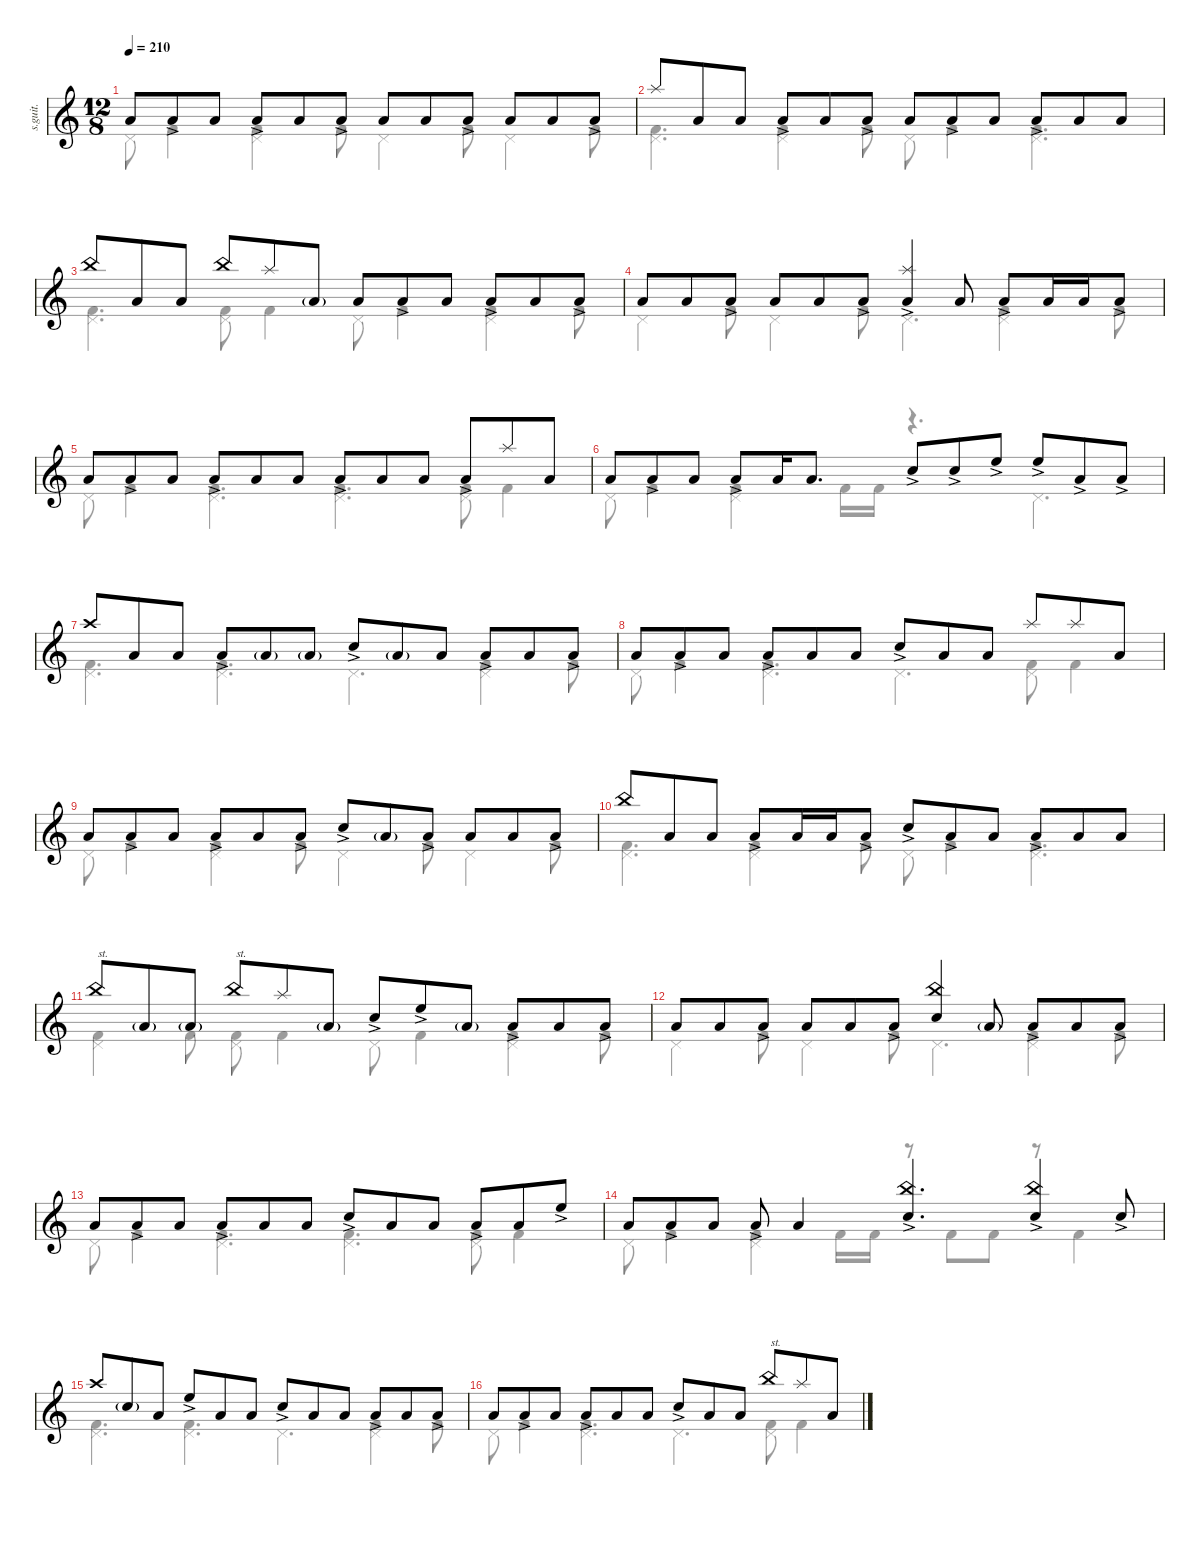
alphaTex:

\defaultSystemsLayout 4
\hideDynamics
\bracketExtendMode nobrackets
\track ("Percussion" "s.guit.") {instrument percussion}
\staff {score}
\articulation defaults
\voice
\ts (12 8)
\tempo 210
\clef g2
\ks c "Low Tom (hit)".8{lyrics (0 "") lyrics (1 "") lyrics (2 "") lyrics (3 "") lyrics (4 "") dy f} "Low Tom (hit)"{ac}.8{lyrics (0 "") lyrics (1 "") lyrics (2 "") lyrics (3 "") lyrics (4 "") dy mf} "Low Tom (hit)".8{lyrics (0 "") lyrics (1 "") lyrics (2 "") lyrics (3 "") lyrics (4 "") dy f} "Low Tom (hit)"{ac}.8{lyrics (0 "") lyrics (1 "") lyrics (2 "") lyrics (3 "") lyrics (4 "") dy mf} "Low Tom (hit)".8{lyrics (0 "") lyrics (1 "") lyrics (2 "") lyrics (3 "") lyrics (4 "") dy f} "Low Tom (hit)"{ac}.8{lyrics (0 "") lyrics (1 "") lyrics (2 "") lyrics (3 "") lyrics (4 "") dy mf} "Low Tom (hit)".8{lyrics (0 "") lyrics (1 "") lyrics (2 "") lyrics (3 "") lyrics (4 "") dy f} "Low Tom (hit)".8{lyrics (0 "") lyrics (1 "") lyrics (2 "") lyrics (3 "") lyrics (4 "")} "Low Tom (hit)"{ac}.8{lyrics (0 "") lyrics (1 "") lyrics (2 "") lyrics (3 "") lyrics (4 "") dy mf} "Low Tom (hit)".8{lyrics (0 "") lyrics (1 "") lyrics (2 "") lyrics (3 "") lyrics (4 "") dy f} "Low Tom (hit)".8{lyrics (0 "") lyrics (1 "") lyrics (2 "") lyrics (3 "") lyrics (4 "")} "Low Tom (hit)"{ac}.8{lyrics (0 "") lyrics (1 "") lyrics (2 "") lyrics (3 "") lyrics (4 "") dy mf}
|
"Splash (hit)".8{lyrics (0 "") lyrics (1 "") lyrics (2 "") lyrics (3 "") lyrics (4 "") dy f} "Low Tom (hit)".8{lyrics (0 "") lyrics (1 "") lyrics (2 "") lyrics (3 "") lyrics (4 "")} "Low Tom (hit)".8{lyrics (0 "") lyrics (1 "") lyrics (2 "") lyrics (3 "") lyrics (4 "")} "Low Tom (hit)"{ac}.8{lyrics (0 "") lyrics (1 "") lyrics (2 "") lyrics (3 "") lyrics (4 "") dy mf} "Low Tom (hit)".8{lyrics (0 "") lyrics (1 "") lyrics (2 "") lyrics (3 "") lyrics (4 "") dy f} "Low Tom (hit)"{ac}.8{lyrics (0 "") lyrics (1 "") lyrics (2 "") lyrics (3 "") lyrics (4 "") dy mf} "Low Tom (hit)".8{lyrics (0 "") lyrics (1 "") lyrics (2 "") lyrics (3 "") lyrics (4 "") dy f} "Low Tom (hit)"{ac}.8{lyrics (0 "") lyrics (1 "") lyrics (2 "") lyrics (3 "") lyrics (4 "") dy mf} "Low Tom (hit)".8{lyrics (0 "") lyrics (1 "") lyrics (2 "") lyrics (3 "") lyrics (4 "") dy f} "Low Tom (hit)"{ac}.8{lyrics (0 "") lyrics (1 "") lyrics (2 "") lyrics (3 "") lyrics (4 "") dy mf} "Low Tom (hit)".8{lyrics (0 "") lyrics (1 "") lyrics (2 "") lyrics (3 "") lyrics (4 "") dy f} "Low Tom (hit)".8{lyrics (0 "") lyrics (1 "") lyrics (2 "") lyrics (3 "") lyrics (4 "")} |
"China (hit)".8{lyrics (0 "") lyrics (1 "") lyrics (2 "") lyrics (3 "") lyrics (4 "")} "Low Tom (hit)".8{lyrics (0 "") lyrics (1 "") lyrics (2 "") lyrics (3 "") lyrics (4 "")} "Low Tom (hit)".8{lyrics (0 "") lyrics (1 "") lyrics (2 "") lyrics (3 "") lyrics (4 "")} "China (hit)".8{lyrics (0 "") lyrics (1 "") lyrics (2 "") lyrics (3 "") lyrics (4 "")} "Splash (hit)".8{lyrics (0 "") lyrics (1 "") lyrics (2 "") lyrics (3 "") lyrics (4 "")} "Low Tom (hit)"{g}.8{lyrics (0 "") lyrics (1 "") lyrics (2 "") lyrics (3 "") lyrics (4 "") dy ff} "Low Tom (hit)".8{lyrics (0 "") lyrics (1 "") lyrics (2 "") lyrics (3 "") lyrics (4 "") dy f} "Low Tom (hit)"{ac}.8{lyrics (0 "") lyrics (1 "") lyrics (2 "") lyrics (3 "") lyrics (4 "") dy mf} "Low Tom (hit)".8{lyrics (0 "") lyrics (1 "") lyrics (2 "") lyrics (3 "") lyrics (4 "") dy f} "Low Tom (hit)"{ac}.8{lyrics (0 "") lyrics (1 "") lyrics (2 "") lyrics (3 "") lyrics (4 "") dy mf} "Low Tom (hit)".8{lyrics (0 "") lyrics (1 "") lyrics (2 "") lyrics (3 "") lyrics (4 "") dy f} "Low Tom (hit)"{ac}.8{lyrics (0 "") lyrics (1 "") lyrics (2 "") lyrics (3 "") lyrics (4 "") dy mf} |
"Low Tom (hit)".8{lyrics (0 "") lyrics (1 "") lyrics (2 "") lyrics (3 "") lyrics (4 "") dy f} "Low Tom (hit)".8{lyrics (0 "") lyrics (1 "") lyrics (2 "") lyrics (3 "") lyrics (4 "")} "Low Tom (hit)"{ac}.8{lyrics (0 "") lyrics (1 "") lyrics (2 "") lyrics (3 "") lyrics (4 "") dy mf} "Low Tom (hit)".8{lyrics (0 "") lyrics (1 "") lyrics (2 "") lyrics (3 "") lyrics (4 "") dy f} "Low Tom (hit)".8{lyrics (0 "") lyrics (1 "") lyrics (2 "") lyrics (3 "") lyrics (4 "")} "Low Tom (hit)"{ac}.8{lyrics (0 "") lyrics (1 "") lyrics (2 "") lyrics (3 "") lyrics (4 "") dy mf} ("Splash (hit)" "Low Tom (hit)"{ac}).4{lyrics (0 "") lyrics (1 "") lyrics (2 "") lyrics (3 "") lyrics (4 "") dy f} "Low Tom (hit)".8{lyrics (0 "") lyrics (1 "") lyrics (2 "") lyrics (3 "") lyrics (4 "")} "Low Tom (hit)"{ac}.8{lyrics (0 "") lyrics (1 "") lyrics (2 "") lyrics (3 "") lyrics (4 "") dy mf} "Low Tom (hit)".16{lyrics (0 "") lyrics (1 "") lyrics (2 "") lyrics (3 "") lyrics (4 "") dy f} "Low Tom (hit)".16{lyrics (0 "") lyrics (1 "") lyrics (2 "") lyrics (3 "") lyrics (4 "")} "Low Tom (hit)"{ac}.8{lyrics (0 "") lyrics (1 "") lyrics (2 "") lyrics (3 "") lyrics (4 "") dy mf} |
"Low Tom (hit)".8{lyrics (0 "") lyrics (1 "") lyrics (2 "") lyrics (3 "") lyrics (4 "") dy f} "Low Tom (hit)"{ac}.8{lyrics (0 "") lyrics (1 "") lyrics (2 "") lyrics (3 "") lyrics (4 "") dy mf} "Low Tom (hit)".8{lyrics (0 "") lyrics (1 "") lyrics (2 "") lyrics (3 "") lyrics (4 "") dy f} "Low Tom (hit)"{ac}.8{lyrics (0 "") lyrics (1 "") lyrics (2 "") lyrics (3 "") lyrics (4 "") dy mf} "Low Tom (hit)".8{lyrics (0 "") lyrics (1 "") lyrics (2 "") lyrics (3 "") lyrics (4 "") dy f} "Low Tom (hit)".8{lyrics (0 "") lyrics (1 "") lyrics (2 "") lyrics (3 "") lyrics (4 "")} "Low Tom (hit)"{ac}.8{lyrics (0 "") lyrics (1 "") lyrics (2 "") lyrics (3 "") lyrics (4 "") dy mf} "Low Tom (hit)".8{lyrics (0 "") lyrics (1 "") lyrics (2 "") lyrics (3 "") lyrics (4 "") dy f} "Low Tom (hit)".8{lyrics (0 "") lyrics (1 "") lyrics (2 "") lyrics (3 "") lyrics (4 "")} "Low Tom (hit)"{ac}.8{lyrics (0 "") lyrics (1 "") lyrics (2 "") lyrics (3 "") lyrics (4 "") dy mf} "Splash (hit)".8{lyrics (0 "") lyrics (1 "") lyrics (2 "") lyrics (3 "") lyrics (4 "") dy f} "Low Tom (hit)".8{lyrics (0 "") lyrics (1 "") lyrics (2 "") lyrics (3 "") lyrics (4 "")} |
"Low Tom (hit)".8{lyrics (0 "") lyrics (1 "") lyrics (2 "") lyrics (3 "") lyrics (4 "")} "Low Tom (hit)"{ac}.8{lyrics (0 "") lyrics (1 "") lyrics (2 "") lyrics (3 "") lyrics (4 "") dy mf} "Low Tom (hit)".8{lyrics (0 "") lyrics (1 "") lyrics (2 "") lyrics (3 "") lyrics (4 "") dy f} "Low Tom (hit)"{ac}.8{lyrics (0 "") lyrics (1 "") lyrics (2 "") lyrics (3 "") lyrics (4 "") dy mf} "Low Tom (hit)".16{lyrics (0 "") lyrics (1 "") lyrics (2 "") lyrics (3 "") lyrics (4 "") dy f} "Low Tom (hit)".8{d lyrics (0 "") lyrics (1 "") lyrics (2 "") lyrics (3 "") lyrics (4 "")} "Snare (hit) 2"{ac}.8{lyrics (0 "") lyrics (1 "") lyrics (2 "") lyrics (3 "") lyrics (4 "") dy mf} "Snare (hit) 2"{ac}.8{lyrics (0 "") lyrics (1 "") lyrics (2 "") lyrics (3 "") lyrics (4 "")} "High Floor Tom (hit)"{ac}.8{lyrics (0 "") lyrics (1 "") lyrics (2 "") lyrics (3 "") lyrics (4 "")} "High Floor Tom (hit)"{ac}.8{lyrics (0 "") lyrics (1 "") lyrics (2 "") lyrics (3 "") lyrics (4 "")} "Low Tom (hit)"{ac}.8{lyrics (0 "") lyrics (1 "") lyrics (2 "") lyrics (3 "") lyrics (4 "")} "Low Tom (hit)"{ac}.8{lyrics (0 "") lyrics (1 "") lyrics (2 "") lyrics (3 "") lyrics (4 "")} |
"Crash high (hit)".8{lyrics (0 "") lyrics (1 "") lyrics (2 "") lyrics (3 "") lyrics (4 "") dy f} "Low Tom (hit)".8{lyrics (0 "") lyrics (1 "") lyrics (2 "") lyrics (3 "") lyrics (4 "")} "Low Tom (hit)".8{lyrics (0 "") lyrics (1 "") lyrics (2 "") lyrics (3 "") lyrics (4 "")} "Low Tom (hit)"{ac}.8{lyrics (0 "") lyrics (1 "") lyrics (2 "") lyrics (3 "") lyrics (4 "") dy mf} "Low Tom (hit)"{g}.8{lyrics (0 "") lyrics (1 "") lyrics (2 "") lyrics (3 "") lyrics (4 "") dy ff} "Low Tom (hit)"{g}.8{lyrics (0 "") lyrics (1 "") lyrics (2 "") lyrics (3 "") lyrics (4 "")} "Snare (hit) 2"{ac}.8{lyrics (0 "") lyrics (1 "") lyrics (2 "") lyrics (3 "") lyrics (4 "") dy mf} "Low Tom (hit)"{g}.8{lyrics (0 "") lyrics (1 "") lyrics (2 "") lyrics (3 "") lyrics (4 "") dy ff} "Low Tom (hit)".8{lyrics (0 "") lyrics (1 "") lyrics (2 "") lyrics (3 "") lyrics (4 "") dy f} "Low Tom (hit)"{ac}.8{lyrics (0 "") lyrics (1 "") lyrics (2 "") lyrics (3 "") lyrics (4 "") dy mf} "Low Tom (hit)".8{lyrics (0 "") lyrics (1 "") lyrics (2 "") lyrics (3 "") lyrics (4 "") dy f} "Low Tom (hit)"{ac}.8{lyrics (0 "") lyrics (1 "") lyrics (2 "") lyrics (3 "") lyrics (4 "") dy mf} |
"Low Tom (hit)".8{lyrics (0 "") lyrics (1 "") lyrics (2 "") lyrics (3 "") lyrics (4 "") dy f} "Low Tom (hit)"{ac}.8{lyrics (0 "") lyrics (1 "") lyrics (2 "") lyrics (3 "") lyrics (4 "") dy mf} "Low Tom (hit)".8{lyrics (0 "") lyrics (1 "") lyrics (2 "") lyrics (3 "") lyrics (4 "") dy f} "Low Tom (hit)"{ac}.8{lyrics (0 "") lyrics (1 "") lyrics (2 "") lyrics (3 "") lyrics (4 "") dy mf} "Low Tom (hit)".8{lyrics (0 "") lyrics (1 "") lyrics (2 "") lyrics (3 "") lyrics (4 "") dy f} "Low Tom (hit)".8{lyrics (0 "") lyrics (1 "") lyrics (2 "") lyrics (3 "") lyrics (4 "")} "Snare (hit) 2"{ac}.8{lyrics (0 "") lyrics (1 "") lyrics (2 "") lyrics (3 "") lyrics (4 "") dy mf} "Low Tom (hit)".8{lyrics (0 "") lyrics (1 "") lyrics (2 "") lyrics (3 "") lyrics (4 "") dy f} "Low Tom (hit)".8{lyrics (0 "") lyrics (1 "") lyrics (2 "") lyrics (3 "") lyrics (4 "")} "Splash (hit)".8{lyrics (0 "") lyrics (1 "") lyrics (2 "") lyrics (3 "") lyrics (4 "")} "Splash (hit)".8{lyrics (0 "") lyrics (1 "") lyrics (2 "") lyrics (3 "") lyrics (4 "")} "Low Tom (hit)".8{lyrics (0 "") lyrics (1 "") lyrics (2 "") lyrics (3 "") lyrics (4 "")} |
"Low Tom (hit)".8{lyrics (0 "") lyrics (1 "") lyrics (2 "") lyrics (3 "") lyrics (4 "")} "Low Tom (hit)"{ac}.8{lyrics (0 "") lyrics (1 "") lyrics (2 "") lyrics (3 "") lyrics (4 "") dy mf} "Low Tom (hit)".8{lyrics (0 "") lyrics (1 "") lyrics (2 "") lyrics (3 "") lyrics (4 "") dy f} "Low Tom (hit)"{ac}.8{lyrics (0 "") lyrics (1 "") lyrics (2 "") lyrics (3 "") lyrics (4 "") dy mf} "Low Tom (hit)".8{lyrics (0 "") lyrics (1 "") lyrics (2 "") lyrics (3 "") lyrics (4 "") dy f} "Low Tom (hit)"{ac}.8{lyrics (0 "") lyrics (1 "") lyrics (2 "") lyrics (3 "") lyrics (4 "") dy mf} "Snare (hit) 2"{ac}.8{lyrics (0 "") lyrics (1 "") lyrics (2 "") lyrics (3 "") lyrics (4 "")} "Low Tom (hit)"{g}.8{lyrics (0 "") lyrics (1 "") lyrics (2 "") lyrics (3 "") lyrics (4 "") dy ff} "Low Tom (hit)"{ac}.8{lyrics (0 "") lyrics (1 "") lyrics (2 "") lyrics (3 "") lyrics (4 "") dy mf} "Low Tom (hit)".8{lyrics (0 "") lyrics (1 "") lyrics (2 "") lyrics (3 "") lyrics (4 "") dy f} "Low Tom (hit)".8{lyrics (0 "") lyrics (1 "") lyrics (2 "") lyrics (3 "") lyrics (4 "")} "Low Tom (hit)"{ac}.8{lyrics (0 "") lyrics (1 "") lyrics (2 "") lyrics (3 "") lyrics (4 "") dy mf} |
"China (hit)".8{lyrics (0 "") lyrics (1 "") lyrics (2 "") lyrics (3 "") lyrics (4 "") dy f} "Low Tom (hit)".8{lyrics (0 "") lyrics (1 "") lyrics (2 "") lyrics (3 "") lyrics (4 "")} "Low Tom (hit)".8{lyrics (0 "") lyrics (1 "") lyrics (2 "") lyrics (3 "") lyrics (4 "")} "Low Tom (hit)"{ac}.8{lyrics (0 "") lyrics (1 "") lyrics (2 "") lyrics (3 "") lyrics (4 "") dy mf} "Low Tom (hit)".16{lyrics (0 "") lyrics (1 "") lyrics (2 "") lyrics (3 "") lyrics (4 "") dy f} "Low Tom (hit)".16{lyrics (0 "") lyrics (1 "") lyrics (2 "") lyrics (3 "") lyrics (4 "")} "Low Tom (hit)"{ac}.8{lyrics (0 "") lyrics (1 "") lyrics (2 "") lyrics (3 "") lyrics (4 "") dy mf} "Snare (hit) 2"{ac}.8{lyrics (0 "") lyrics (1 "") lyrics (2 "") lyrics (3 "") lyrics (4 "")} "Low Tom (hit)"{ac}.8{lyrics (0 "") lyrics (1 "") lyrics (2 "") lyrics (3 "") lyrics (4 "")} "Low Tom (hit)".8{lyrics (0 "") lyrics (1 "") lyrics (2 "") lyrics (3 "") lyrics (4 "") dy f} "Low Tom (hit)"{ac}.8{lyrics (0 "") lyrics (1 "") lyrics (2 "") lyrics (3 "") lyrics (4 "") dy mf} "Low Tom (hit)".8{lyrics (0 "") lyrics (1 "") lyrics (2 "") lyrics (3 "") lyrics (4 "") dy f} "Low Tom (hit)".8{lyrics (0 "") lyrics (1 "") lyrics (2 "") lyrics (3 "") lyrics (4 "")} |
"China (hit)".8{txt "st." lyrics (0 "") lyrics (1 "") lyrics (2 "") lyrics (3 "") lyrics (4 "")} "Low Tom (hit)"{g}.8{lyrics (0 "") lyrics (1 "") lyrics (2 "") lyrics (3 "") lyrics (4 "") dy ff} "Low Tom (hit)"{g}.8{lyrics (0 "") lyrics (1 "") lyrics (2 "") lyrics (3 "") lyrics (4 "")} "China (hit)".8{txt "st." lyrics (0 "") lyrics (1 "") lyrics (2 "") lyrics (3 "") lyrics (4 "") dy f} "Splash (hit)".8{lyrics (0 "") lyrics (1 "") lyrics (2 "") lyrics (3 "") lyrics (4 "")} "Low Tom (hit)"{g}.8{lyrics (0 "") lyrics (1 "") lyrics (2 "") lyrics (3 "") lyrics (4 "") dy ff} "Snare (hit) 2"{ac}.8{lyrics (0 "") lyrics (1 "") lyrics (2 "") lyrics (3 "") lyrics (4 "") dy mf} "High Floor Tom (hit)"{ac}.8{lyrics (0 "") lyrics (1 "") lyrics (2 "") lyrics (3 "") lyrics (4 "")} "Low Tom (hit)"{g}.8{lyrics (0 "") lyrics (1 "") lyrics (2 "") lyrics (3 "") lyrics (4 "") dy ff} "Low Tom (hit)"{ac}.8{lyrics (0 "") lyrics (1 "") lyrics (2 "") lyrics (3 "") lyrics (4 "") dy mf} "Low Tom (hit)".8{lyrics (0 "") lyrics (1 "") lyrics (2 "") lyrics (3 "") lyrics (4 "") dy f} "Low Tom (hit)"{ac}.8{lyrics (0 "") lyrics (1 "") lyrics (2 "") lyrics (3 "") lyrics (4 "") dy mf} |
"Low Tom (hit)".8{lyrics (0 "") lyrics (1 "") lyrics (2 "") lyrics (3 "") lyrics (4 "") dy f} "Low Tom (hit)".8{lyrics (0 "") lyrics (1 "") lyrics (2 "") lyrics (3 "") lyrics (4 "")} "Low Tom (hit)"{ac}.8{lyrics (0 "") lyrics (1 "") lyrics (2 "") lyrics (3 "") lyrics (4 "") dy mf} "Low Tom (hit)".8{lyrics (0 "") lyrics (1 "") lyrics (2 "") lyrics (3 "") lyrics (4 "") dy f} "Low Tom (hit)".8{lyrics (0 "") lyrics (1 "") lyrics (2 "") lyrics (3 "") lyrics (4 "")} "Low Tom (hit)"{ac}.8{lyrics (0 "") lyrics (1 "") lyrics (2 "") lyrics (3 "") lyrics (4 "") dy mf} ("China (hit)" "Snare (hit) 2").4{lyrics (0 "") lyrics (1 "") lyrics (2 "") lyrics (3 "") lyrics (4 "") dy f} "Low Tom (hit)"{g}.8{lyrics (0 "") lyrics (1 "") lyrics (2 "") lyrics (3 "") lyrics (4 "") dy ff} "Low Tom (hit)"{ac}.8{lyrics (0 "") lyrics (1 "") lyrics (2 "") lyrics (3 "") lyrics (4 "") dy mf} "Low Tom (hit)".8{lyrics (0 "") lyrics (1 "") lyrics (2 "") lyrics (3 "") lyrics (4 "") dy f} "Low Tom (hit)"{ac}.8{lyrics (0 "") lyrics (1 "") lyrics (2 "") lyrics (3 "") lyrics (4 "") dy mf} |
"Low Tom (hit)".8{lyrics (0 "") lyrics (1 "") lyrics (2 "") lyrics (3 "") lyrics (4 "") dy f} "Low Tom (hit)"{ac}.8{lyrics (0 "") lyrics (1 "") lyrics (2 "") lyrics (3 "") lyrics (4 "") dy mf} "Low Tom (hit)".8{lyrics (0 "") lyrics (1 "") lyrics (2 "") lyrics (3 "") lyrics (4 "") dy f} "Low Tom (hit)"{ac}.8{lyrics (0 "") lyrics (1 "") lyrics (2 "") lyrics (3 "") lyrics (4 "") dy mf} "Low Tom (hit)".8{lyrics (0 "") lyrics (1 "") lyrics (2 "") lyrics (3 "") lyrics (4 "") dy f} "Low Tom (hit)".8{lyrics (0 "") lyrics (1 "") lyrics (2 "") lyrics (3 "") lyrics (4 "")} "Snare (hit) 2"{ac}.8{lyrics (0 "") lyrics (1 "") lyrics (2 "") lyrics (3 "") lyrics (4 "") dy mf} "Low Tom (hit)".8{lyrics (0 "") lyrics (1 "") lyrics (2 "") lyrics (3 "") lyrics (4 "") dy f} "Low Tom (hit)".8{lyrics (0 "") lyrics (1 "") lyrics (2 "") lyrics (3 "") lyrics (4 "")} "Low Tom (hit)"{ac}.8{lyrics (0 "") lyrics (1 "") lyrics (2 "") lyrics (3 "") lyrics (4 "") dy mf} "Low Tom (hit)".8{lyrics (0 "") lyrics (1 "") lyrics (2 "") lyrics (3 "") lyrics (4 "") dy f} "High Floor Tom (hit)"{ac}.8{lyrics (0 "") lyrics (1 "") lyrics (2 "") lyrics (3 "") lyrics (4 "") dy mf} |
"Low Tom (hit)".8{lyrics (0 "") lyrics (1 "") lyrics (2 "") lyrics (3 "") lyrics (4 "") dy f} "Low Tom (hit)"{ac}.8{lyrics (0 "") lyrics (1 "") lyrics (2 "") lyrics (3 "") lyrics (4 "") dy mf} "Low Tom (hit)".8{lyrics (0 "") lyrics (1 "") lyrics (2 "") lyrics (3 "") lyrics (4 "") dy f} "Low Tom (hit)"{ac}.8{lyrics (0 "") lyrics (1 "") lyrics (2 "") lyrics (3 "") lyrics (4 "") dy mf} "Low Tom (hit)".4{lyrics (0 "") lyrics (1 "") lyrics (2 "") lyrics (3 "") lyrics (4 "") dy f} ("Snare (hit) 2"{ac} "China (hit)").4{d lyrics (0 "") lyrics (1 "") lyrics (2 "") lyrics (3 "") lyrics (4 "")} ("Snare (hit) 2"{ac} "China (hit)").4{lyrics (0 "") lyrics (1 "") lyrics (2 "") lyrics (3 "") lyrics (4 "")} "Snare (hit) 2"{ac}.8{lyrics (0 "") lyrics (1 "") lyrics (2 "") lyrics (3 "") lyrics (4 "") dy mf} |
"Crash high (hit)".8{lyrics (0 "") lyrics (1 "") lyrics (2 "") lyrics (3 "") lyrics (4 "") dy f} "Snare (hit) 2"{g}.8{lyrics (0 "") lyrics (1 "") lyrics (2 "") lyrics (3 "") lyrics (4 "") dy ff} "Low Tom (hit)".8{lyrics (0 "") lyrics (1 "") lyrics (2 "") lyrics (3 "") lyrics (4 "") dy f} "High Floor Tom (hit)"{ac}.8{lyrics (0 "") lyrics (1 "") lyrics (2 "") lyrics (3 "") lyrics (4 "") dy mf} "Low Tom (hit)".8{lyrics (0 "") lyrics (1 "") lyrics (2 "") lyrics (3 "") lyrics (4 "") dy f} "Low Tom (hit)".8{lyrics (0 "") lyrics (1 "") lyrics (2 "") lyrics (3 "") lyrics (4 "")} "Snare (hit) 2"{ac}.8{lyrics (0 "") lyrics (1 "") lyrics (2 "") lyrics (3 "") lyrics (4 "") dy mf} "Low Tom (hit)".8{lyrics (0 "") lyrics (1 "") lyrics (2 "") lyrics (3 "") lyrics (4 "") dy f} "Low Tom (hit)".8{lyrics (0 "") lyrics (1 "") lyrics (2 "") lyrics (3 "") lyrics (4 "")} "Low Tom (hit)"{ac}.8{lyrics (0 "") lyrics (1 "") lyrics (2 "") lyrics (3 "") lyrics (4 "") dy mf} "Low Tom (hit)".8{lyrics (0 "") lyrics (1 "") lyrics (2 "") lyrics (3 "") lyrics (4 "") dy f} "Low Tom (hit)"{ac}.8{lyrics (0 "") lyrics (1 "") lyrics (2 "") lyrics (3 "") lyrics (4 "") dy mf} |
"Low Tom (hit)".8{lyrics (0 "") lyrics (1 "") lyrics (2 "") lyrics (3 "") lyrics (4 "") dy f} "Low Tom (hit)"{ac}.8{lyrics (0 "") lyrics (1 "") lyrics (2 "") lyrics (3 "") lyrics (4 "") dy mf} "Low Tom (hit)".8{lyrics (0 "") lyrics (1 "") lyrics (2 "") lyrics (3 "") lyrics (4 "") dy f} "Low Tom (hit)"{ac}.8{lyrics (0 "") lyrics (1 "") lyrics (2 "") lyrics (3 "") lyrics (4 "") dy mf} "Low Tom (hit)".8{lyrics (0 "") lyrics (1 "") lyrics (2 "") lyrics (3 "") lyrics (4 "") dy f} "Low Tom (hit)".8{lyrics (0 "") lyrics (1 "") lyrics (2 "") lyrics (3 "") lyrics (4 "")} "Snare (hit) 2"{ac}.8{lyrics (0 "") lyrics (1 "") lyrics (2 "") lyrics (3 "") lyrics (4 "") dy mf} "Low Tom (hit)".8{lyrics (0 "") lyrics (1 "") lyrics (2 "") lyrics (3 "") lyrics (4 "") dy f} "Low Tom (hit)".8{lyrics (0 "") lyrics (1 "") lyrics (2 "") lyrics (3 "") lyrics (4 "")} "China (hit)".8{txt "st." lyrics (0 "") lyrics (1 "") lyrics (2 "") lyrics (3 "") lyrics (4 "")} "Splash (hit)".8{lyrics (0 "") lyrics (1 "") lyrics (2 "") lyrics (3 "") lyrics (4 "")} "Low Tom (hit)".8{lyrics (0 "") lyrics (1 "") lyrics (2 "") lyrics (3 "") lyrics (4 "")}
\voice
\clef g2
\ottava regular
\simile none
\ks c "Pedal Hi-Hat (hit)".8{lyrics (0 "") lyrics (1 "") lyrics (2 "") lyrics (3 "") lyrics (4 "") dy f} "Kick (hit) 2".4{lyrics (0 "") lyrics (1 "") lyrics (2 "") lyrics (3 "") lyrics (4 "")}
("Kick (hit) 2" "Pedal Hi-Hat (hit)").4{lyrics (0 "") lyrics (1 "") lyrics (2 "") lyrics (3 "") lyrics (4 "")} "Kick (hit) 2".8{lyrics (0 "") lyrics (1 "") lyrics (2 "") lyrics (3 "") lyrics (4 "")} "Pedal Hi-Hat (hit)".4{lyrics (0 "") lyrics (1 "") lyrics (2 "") lyrics (3 "") lyrics (4 "")} "Kick (hit) 2".8{lyrics (0 "") lyrics (1 "") lyrics (2 "") lyrics (3 "") lyrics (4 "")} "Pedal Hi-Hat (hit)".4{lyrics (0 "") lyrics (1 "") lyrics (2 "") lyrics (3 "") lyrics (4 "")} "Kick (hit) 2".8{lyrics (0 "") lyrics (1 "") lyrics (2 "") lyrics (3 "") lyrics (4 "")} |
("Kick (hit) 2" "Pedal Hi-Hat (hit)").4{d lyrics (0 "") lyrics (1 "") lyrics (2 "") lyrics (3 "") lyrics (4 "")} ("Kick (hit) 2" "Pedal Hi-Hat (hit)").4{lyrics (0 "") lyrics (1 "") lyrics (2 "") lyrics (3 "") lyrics (4 "")} "Kick (hit) 2".8{lyrics (0 "") lyrics (1 "") lyrics (2 "") lyrics (3 "") lyrics (4 "")} "Pedal Hi-Hat (hit)".8{lyrics (0 "") lyrics (1 "") lyrics (2 "") lyrics (3 "") lyrics (4 "")} "Kick (hit) 2".4{lyrics (0 "") lyrics (1 "") lyrics (2 "") lyrics (3 "") lyrics (4 "")} ("Kick (hit) 2" "Pedal Hi-Hat (hit)").4{d lyrics (0 "") lyrics (1 "") lyrics (2 "") lyrics (3 "") lyrics (4 "")} |
("Kick (hit) 2" "Pedal Hi-Hat (hit)").4{d lyrics (0 "") lyrics (1 "") lyrics (2 "") lyrics (3 "") lyrics (4 "")} ("Kick (hit) 2" "Pedal Hi-Hat (hit)").8{lyrics (0 "") lyrics (1 "") lyrics (2 "") lyrics (3 "") lyrics (4 "")} "Kick (hit) 2".4{lyrics (0 "") lyrics (1 "") lyrics (2 "") lyrics (3 "") lyrics (4 "")} "Pedal Hi-Hat (hit)".8{lyrics (0 "") lyrics (1 "") lyrics (2 "") lyrics (3 "") lyrics (4 "")} "Kick (hit) 2".4{lyrics (0 "") lyrics (1 "") lyrics (2 "") lyrics (3 "") lyrics (4 "")} ("Kick (hit) 2" "Pedal Hi-Hat (hit)").4{lyrics (0 "") lyrics (1 "") lyrics (2 "") lyrics (3 "") lyrics (4 "")} "Kick (hit) 2".8{lyrics (0 "") lyrics (1 "") lyrics (2 "") lyrics (3 "") lyrics (4 "")} |
"Pedal Hi-Hat (hit)".4{lyrics (0 "") lyrics (1 "") lyrics (2 "") lyrics (3 "") lyrics (4 "")} "Kick (hit) 2".8{lyrics (0 "") lyrics (1 "") lyrics (2 "") lyrics (3 "") lyrics (4 "")} "Pedal Hi-Hat (hit)".4{lyrics (0 "") lyrics (1 "") lyrics (2 "") lyrics (3 "") lyrics (4 "")} "Kick (hit) 2".8{lyrics (0 "") lyrics (1 "") lyrics (2 "") lyrics (3 "") lyrics (4 "")} "Pedal Hi-Hat (hit)".4{d lyrics (0 "") lyrics (1 "") lyrics (2 "") lyrics (3 "") lyrics (4 "")} ("Kick (hit) 2" "Pedal Hi-Hat (hit)").4{lyrics (0 "") lyrics (1 "") lyrics (2 "") lyrics (3 "") lyrics (4 "")} "Kick (hit) 2".8{lyrics (0 "") lyrics (1 "") lyrics (2 "") lyrics (3 "") lyrics (4 "")} |
"Pedal Hi-Hat (hit)".8{lyrics (0 "") lyrics (1 "") lyrics (2 "") lyrics (3 "") lyrics (4 "")} "Kick (hit) 2".4{lyrics (0 "") lyrics (1 "") lyrics (2 "") lyrics (3 "") lyrics (4 "")} ("Kick (hit) 2" "Pedal Hi-Hat (hit)").4{d lyrics (0 "") lyrics (1 "") lyrics (2 "") lyrics (3 "") lyrics (4 "")} ("Pedal Hi-Hat (hit)" "Kick (hit) 2").4{d lyrics (0 "") lyrics (1 "") lyrics (2 "") lyrics (3 "") lyrics (4 "")} ("Pedal Hi-Hat (hit)" "Kick (hit) 2").8{lyrics (0 "") lyrics (1 "") lyrics (2 "") lyrics (3 "") lyrics (4 "")} "Kick (hit) 2".4{lyrics (0 "") lyrics (1 "") lyrics (2 "") lyrics (3 "") lyrics (4 "")} |
"Pedal Hi-Hat (hit)".8{lyrics (0 "") lyrics (1 "") lyrics (2 "") lyrics (3 "") lyrics (4 "")} "Kick (hit) 2".4{lyrics (0 "") lyrics (1 "") lyrics (2 "") lyrics (3 "") lyrics (4 "")} ("Kick (hit) 2" "Pedal Hi-Hat (hit)").4{lyrics (0 "") lyrics (1 "") lyrics (2 "") lyrics (3 "") lyrics (4 "")} "Kick (hit) 2".16{lyrics (0 "") lyrics (1 "") lyrics (2 "") lyrics (3 "") lyrics (4 "")} "Kick (hit) 2".16{lyrics (0 "") lyrics (1 "") lyrics (2 "") lyrics (3 "") lyrics (4 "")} r.4{d} "Pedal Hi-Hat (hit)".4{d lyrics (0 "") lyrics (1 "") lyrics (2 "") lyrics (3 "") lyrics (4 "")} |
("Kick (hit) 2" "Pedal Hi-Hat (hit)").4{d lyrics (0 "") lyrics (1 "") lyrics (2 "") lyrics (3 "") lyrics (4 "")} ("Kick (hit) 2" "Pedal Hi-Hat (hit)").4{d lyrics (0 "") lyrics (1 "") lyrics (2 "") lyrics (3 "") lyrics (4 "")} "Pedal Hi-Hat (hit)".4{d lyrics (0 "") lyrics (1 "") lyrics (2 "") lyrics (3 "") lyrics (4 "")} ("Kick (hit) 2" "Pedal Hi-Hat (hit)").4{lyrics (0 "") lyrics (1 "") lyrics (2 "") lyrics (3 "") lyrics (4 "")} "Kick (hit) 2".8{lyrics (0 "") lyrics (1 "") lyrics (2 "") lyrics (3 "") lyrics (4 "")} |
"Pedal Hi-Hat (hit)".8{lyrics (0 "") lyrics (1 "") lyrics (2 "") lyrics (3 "") lyrics (4 "")} "Kick (hit) 2".4{lyrics (0 "") lyrics (1 "") lyrics (2 "") lyrics (3 "") lyrics (4 "")} ("Kick (hit) 2" "Pedal Hi-Hat (hit)").4{d lyrics (0 "") lyrics (1 "") lyrics (2 "") lyrics (3 "") lyrics (4 "")} "Pedal Hi-Hat (hit)".4{d lyrics (0 "") lyrics (1 "") lyrics (2 "") lyrics (3 "") lyrics (4 "")} ("Kick (hit) 2" "Pedal Hi-Hat (hit)").8{lyrics (0 "") lyrics (1 "") lyrics (2 "") lyrics (3 "") lyrics (4 "")} "Kick (hit) 2".4{lyrics (0 "") lyrics (1 "") lyrics (2 "") lyrics (3 "") lyrics (4 "")} |
"Pedal Hi-Hat (hit)".8{lyrics (0 "") lyrics (1 "") lyrics (2 "") lyrics (3 "") lyrics (4 "")} "Kick (hit) 2".4{lyrics (0 "") lyrics (1 "") lyrics (2 "") lyrics (3 "") lyrics (4 "")} ("Kick (hit) 2" "Pedal Hi-Hat (hit)").4{lyrics (0 "") lyrics (1 "") lyrics (2 "") lyrics (3 "") lyrics (4 "")} "Kick (hit) 2".8{lyrics (0 "") lyrics (1 "") lyrics (2 "") lyrics (3 "") lyrics (4 "")} "Pedal Hi-Hat (hit)".4{lyrics (0 "") lyrics (1 "") lyrics (2 "") lyrics (3 "") lyrics (4 "")} "Kick (hit) 2".8{lyrics (0 "") lyrics (1 "") lyrics (2 "") lyrics (3 "") lyrics (4 "")} "Pedal Hi-Hat (hit)".4{lyrics (0 "") lyrics (1 "") lyrics (2 "") lyrics (3 "") lyrics (4 "")} "Kick (hit) 2".8{lyrics (0 "") lyrics (1 "") lyrics (2 "") lyrics (3 "") lyrics (4 "")} |
("Kick (hit) 2" "Pedal Hi-Hat (hit)").4{d lyrics (0 "") lyrics (1 "") lyrics (2 "") lyrics (3 "") lyrics (4 "")} ("Kick (hit) 2" "Pedal Hi-Hat (hit)").4{lyrics (0 "") lyrics (1 "") lyrics (2 "") lyrics (3 "") lyrics (4 "")} "Kick (hit) 2".8{lyrics (0 "") lyrics (1 "") lyrics (2 "") lyrics (3 "") lyrics (4 "")} "Pedal Hi-Hat (hit)".8{lyrics (0 "") lyrics (1 "") lyrics (2 "") lyrics (3 "") lyrics (4 "")} "Kick (hit) 2".4{lyrics (0 "") lyrics (1 "") lyrics (2 "") lyrics (3 "") lyrics (4 "")} ("Kick (hit) 2" "Pedal Hi-Hat (hit)").4{d lyrics (0 "") lyrics (1 "") lyrics (2 "") lyrics (3 "") lyrics (4 "")} |
("Kick (hit) 2" "Pedal Hi-Hat (hit)").4{lyrics (0 "") lyrics (1 "") lyrics (2 "") lyrics (3 "") lyrics (4 "")} "Kick (hit) 2".8{lyrics (0 "") lyrics (1 "") lyrics (2 "") lyrics (3 "") lyrics (4 "")} ("Kick (hit) 2" "Pedal Hi-Hat (hit)").8{lyrics (0 "") lyrics (1 "") lyrics (2 "") lyrics (3 "") lyrics (4 "")} "Kick (hit) 2".4{lyrics (0 "") lyrics (1 "") lyrics (2 "") lyrics (3 "") lyrics (4 "")} "Pedal Hi-Hat (hit)".8{lyrics (0 "") lyrics (1 "") lyrics (2 "") lyrics (3 "") lyrics (4 "")} "Kick (hit) 2".4{lyrics (0 "") lyrics (1 "") lyrics (2 "") lyrics (3 "") lyrics (4 "")} ("Kick (hit) 2" "Pedal Hi-Hat (hit)").4{lyrics (0 "") lyrics (1 "") lyrics (2 "") lyrics (3 "") lyrics (4 "")} "Kick (hit) 2".8{lyrics (0 "") lyrics (1 "") lyrics (2 "") lyrics (3 "") lyrics (4 "")} |
"Pedal Hi-Hat (hit)".4{lyrics (0 "") lyrics (1 "") lyrics (2 "") lyrics (3 "") lyrics (4 "")} "Kick (hit) 2".8{lyrics (0 "") lyrics (1 "") lyrics (2 "") lyrics (3 "") lyrics (4 "")} "Pedal Hi-Hat (hit)".4{lyrics (0 "") lyrics (1 "") lyrics (2 "") lyrics (3 "") lyrics (4 "")} "Kick (hit) 2".8{lyrics (0 "") lyrics (1 "") lyrics (2 "") lyrics (3 "") lyrics (4 "")} "Pedal Hi-Hat (hit)".4{d lyrics (0 "") lyrics (1 "") lyrics (2 "") lyrics (3 "") lyrics (4 "")} ("Kick (hit) 2" "Pedal Hi-Hat (hit)").4{lyrics (0 "") lyrics (1 "") lyrics (2 "") lyrics (3 "") lyrics (4 "")} "Kick (hit) 2".8{lyrics (0 "") lyrics (1 "") lyrics (2 "") lyrics (3 "") lyrics (4 "")} |
"Pedal Hi-Hat (hit)".8{lyrics (0 "") lyrics (1 "") lyrics (2 "") lyrics (3 "") lyrics (4 "")} "Kick (hit) 2".4{lyrics (0 "") lyrics (1 "") lyrics (2 "") lyrics (3 "") lyrics (4 "")} ("Kick (hit) 2" "Pedal Hi-Hat (hit)").4{d lyrics (0 "") lyrics (1 "") lyrics (2 "") lyrics (3 "") lyrics (4 "")} ("Pedal Hi-Hat (hit)" "Kick (hit) 2").4{d lyrics (0 "") lyrics (1 "") lyrics (2 "") lyrics (3 "") lyrics (4 "")} ("Pedal Hi-Hat (hit)" "Kick (hit) 2").8{lyrics (0 "") lyrics (1 "") lyrics (2 "") lyrics (3 "") lyrics (4 "")} "Kick (hit) 2".4{lyrics (0 "") lyrics (1 "") lyrics (2 "") lyrics (3 "") lyrics (4 "")} |
"Pedal Hi-Hat (hit)".8{lyrics (0 "") lyrics (1 "") lyrics (2 "") lyrics (3 "") lyrics (4 "")} "Kick (hit) 2".4{lyrics (0 "") lyrics (1 "") lyrics (2 "") lyrics (3 "") lyrics (4 "")} ("Kick (hit) 2" "Pedal Hi-Hat (hit)").4{lyrics (0 "") lyrics (1 "") lyrics (2 "") lyrics (3 "") lyrics (4 "")} "Kick (hit) 2".16{lyrics (0 "") lyrics (1 "") lyrics (2 "") lyrics (3 "") lyrics (4 "")} "Kick (hit) 2".16{lyrics (0 "") lyrics (1 "") lyrics (2 "") lyrics (3 "") lyrics (4 "")} r.8 "Kick (hit) 2".8{lyrics (0 "") lyrics (1 "") lyrics (2 "") lyrics (3 "") lyrics (4 "")} "Kick (hit) 2".8{lyrics (0 "") lyrics (1 "") lyrics (2 "") lyrics (3 "") lyrics (4 "")} r.8 "Kick (hit) 2".4{lyrics (0 "") lyrics (1 "") lyrics (2 "") lyrics (3 "") lyrics (4 "")} |
("Kick (hit) 2" "Pedal Hi-Hat (hit)").4{d lyrics (0 "") lyrics (1 "") lyrics (2 "") lyrics (3 "") lyrics (4 "")} ("Kick (hit) 2" "Pedal Hi-Hat (hit)").4{d lyrics (0 "") lyrics (1 "") lyrics (2 "") lyrics (3 "") lyrics (4 "")} "Pedal Hi-Hat (hit)".4{d lyrics (0 "") lyrics (1 "") lyrics (2 "") lyrics (3 "") lyrics (4 "")} ("Kick (hit) 2" "Pedal Hi-Hat (hit)").4{lyrics (0 "") lyrics (1 "") lyrics (2 "") lyrics (3 "") lyrics (4 "")} "Kick (hit) 2".8{lyrics (0 "") lyrics (1 "") lyrics (2 "") lyrics (3 "") lyrics (4 "")} |
"Pedal Hi-Hat (hit)".8{lyrics (0 "") lyrics (1 "") lyrics (2 "") lyrics (3 "") lyrics (4 "")} "Kick (hit) 2".4{lyrics (0 "") lyrics (1 "") lyrics (2 "") lyrics (3 "") lyrics (4 "")} ("Kick (hit) 2" "Pedal Hi-Hat (hit)").4{d lyrics (0 "") lyrics (1 "") lyrics (2 "") lyrics (3 "") lyrics (4 "")} "Pedal Hi-Hat (hit)".4{d lyrics (0 "") lyrics (1 "") lyrics (2 "") lyrics (3 "") lyrics (4 "")} ("Kick (hit) 2" "Pedal Hi-Hat (hit)").8{lyrics (0 "") lyrics (1 "") lyrics (2 "") lyrics (3 "") lyrics (4 "")} "Kick (hit) 2".4{lyrics (0 "") lyrics (1 "") lyrics (2 "") lyrics (3 "") lyrics (4 "")}
